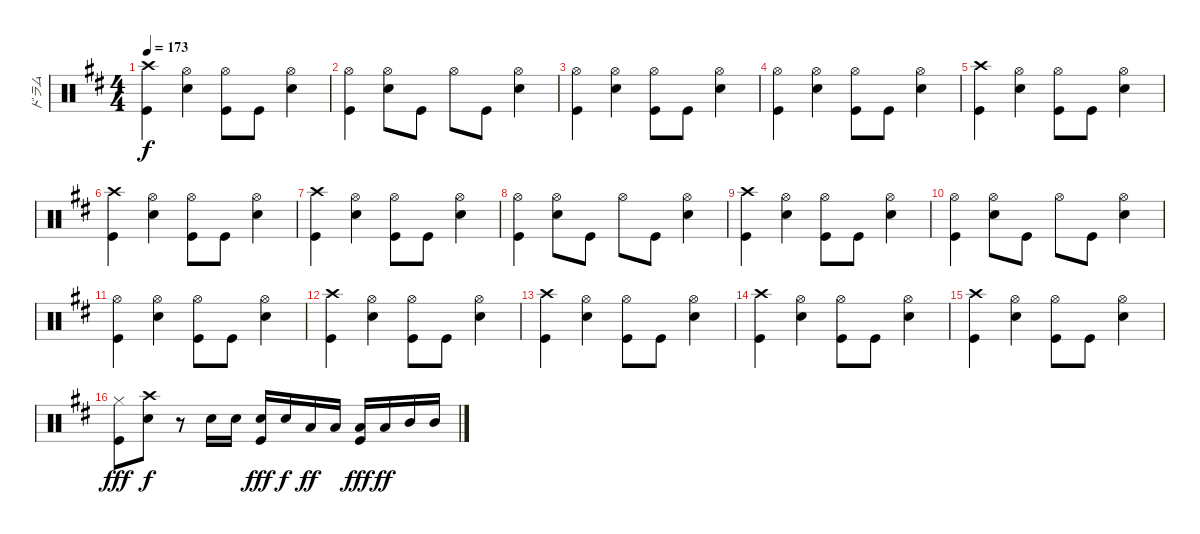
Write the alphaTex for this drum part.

\track ("ドラム" "ドラム") {mute instrument percussion}
\staff {score}
\articulation defaults
\ts (4 4)
\tempo 173
\clef neutral
\ks d
("Crash high (hit)" "Kick (hit)").4{dy f} ("Hi-Hat (open)" "Snare (hit) 2").4 ("Hi-Hat (open)" "Kick (hit)").8 "Kick (hit)".8 ("Hi-Hat (open)" "Snare (hit) 2").4 |
("Hi-Hat (open)" "Kick (hit)").4 ("Hi-Hat (open)" "Snare (hit) 2").8 "Kick (hit)".8 "Hi-Hat (open)".8 "Kick (hit)".8 ("Hi-Hat (open)" "Snare (hit) 2").4 |
("Hi-Hat (open)" "Kick (hit)").4 ("Hi-Hat (open)" "Snare (hit) 2").4 ("Hi-Hat (open)" "Kick (hit)").8 "Kick (hit)".8 ("Hi-Hat (open)" "Snare (hit) 2").4 |
("Hi-Hat (open)" "Kick (hit)").4 ("Hi-Hat (open)" "Snare (hit) 2").4 ("Hi-Hat (open)" "Kick (hit)").8 "Kick (hit)".8 ("Hi-Hat (open)" "Snare (hit) 2").4 |
("Crash high (hit)" "Kick (hit)").4 ("Hi-Hat (open)" "Snare (hit) 2").4 ("Hi-Hat (open)" "Kick (hit)").8 "Kick (hit)".8 ("Hi-Hat (open)" "Snare (hit) 2").4 |
("Crash high (hit)" "Kick (hit)").4 ("Hi-Hat (open)" "Snare (hit) 2").4 ("Hi-Hat (open)" "Kick (hit)").8 "Kick (hit)".8 ("Hi-Hat (open)" "Snare (hit) 2").4 |
("Crash high (hit)" "Kick (hit)").4 ("Hi-Hat (open)" "Snare (hit) 2").4 ("Hi-Hat (open)" "Kick (hit)").8 "Kick (hit)".8 ("Hi-Hat (open)" "Snare (hit) 2").4 |
("Hi-Hat (open)" "Kick (hit)").4 ("Hi-Hat (open)" "Snare (hit) 2").8 "Kick (hit)".8 "Hi-Hat (open)".8 "Kick (hit)".8 ("Hi-Hat (open)" "Snare (hit) 2").4 |
("Crash high (hit)" "Kick (hit)").4 ("Hi-Hat (open)" "Snare (hit) 2").4 ("Hi-Hat (open)" "Kick (hit)").8 "Kick (hit)".8 ("Hi-Hat (open)" "Snare (hit) 2").4 |
("Hi-Hat (open)" "Kick (hit)").4 ("Hi-Hat (open)" "Snare (hit) 2").8 "Kick (hit)".8 "Hi-Hat (open)".8 "Kick (hit)".8 ("Hi-Hat (open)" "Snare (hit) 2").4 |
("Hi-Hat (open)" "Kick (hit)").4 ("Hi-Hat (open)" "Snare (hit) 2").4 ("Hi-Hat (open)" "Kick (hit)").8 "Kick (hit)".8 ("Hi-Hat (open)" "Snare (hit) 2").4 |
("Crash high (hit)" "Kick (hit)").4 ("Hi-Hat (open)" "Snare (hit) 2").4 ("Hi-Hat (open)" "Kick (hit)").8 "Kick (hit)".8 ("Hi-Hat (open)" "Snare (hit) 2").4 |
("Crash high (hit)" "Kick (hit)").4 ("Hi-Hat (open)" "Snare (hit) 2").4 ("Hi-Hat (open)" "Kick (hit)").8 "Kick (hit)".8 ("Hi-Hat (open)" "Snare (hit) 2").4 |
("Crash high (hit)" "Kick (hit)").4 ("Hi-Hat (open)" "Snare (hit) 2").4 ("Hi-Hat (open)" "Kick (hit)").8 "Kick (hit)".8 ("Hi-Hat (open)" "Snare (hit) 2").4 |
("Crash high (hit)" "Kick (hit)").4 ("Hi-Hat (open)" "Snare (hit) 2").4 ("Hi-Hat (open)" "Kick (hit)").8 "Kick (hit)".8 ("Hi-Hat (open)" "Snare (hit) 2").4 |
("Hi-Hat (closed)" "Kick (hit)").8{dy fff} ("Crash high (hit)" "Snare (hit) 2").8{dy f} r.8 "Snare (hit) 2".16 "Snare (hit) 2".16 ("Snare (hit) 2" "Kick (hit)").16{dy fff} "Snare (hit) 2".16{dy f} "Low Tom (hit)".16{dy ff} "Low Tom (hit)".16 ("Low Tom (hit)" "Kick (hit)").16{dy fff} "Low Tom (hit)".16{dy ff} "Mid Tom (hit)".16 "Mid Tom (hit)".16
